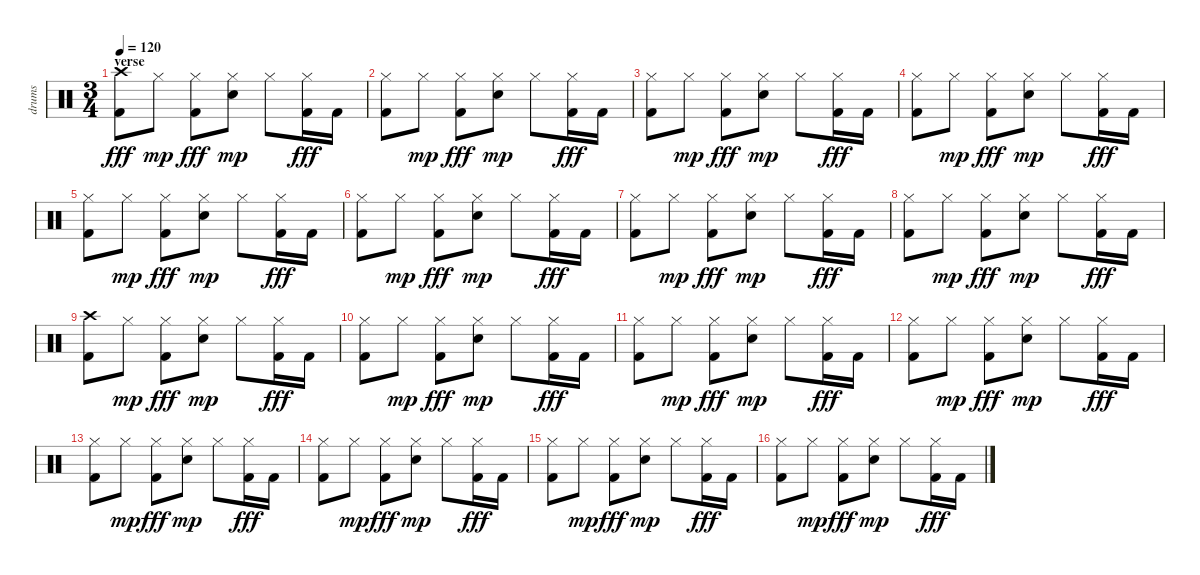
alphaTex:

\track ("drums" "drums") {instrument percussion}
\staff {score}
\articulation defaults
\ts (3 4)
\section ("" "verse")
\tempo 120
\clef neutral
\ks c
("Crash high (hit)" "Kick (hit) 2").8{dy fff} "Hi-Hat (closed)".8{dy mp} ("Hi-Hat (closed)" "Kick (hit) 2").8{dy fff} ("Hi-Hat (closed)" "Snare (hit) 2").8{dy mp} "Hi-Hat (closed)".8 ("Hi-Hat (closed)" "Kick (hit) 2").16{dy fff} "Kick (hit) 2".16 |
("Hi-Hat (closed)" "Kick (hit) 2").8 "Hi-Hat (closed)".8{dy mp} ("Hi-Hat (closed)" "Kick (hit) 2").8{dy fff} ("Hi-Hat (closed)" "Snare (hit) 2").8{dy mp} "Hi-Hat (closed)".8 ("Hi-Hat (closed)" "Kick (hit) 2").16{dy fff} "Kick (hit) 2".16 |
("Hi-Hat (closed)" "Kick (hit) 2").8 "Hi-Hat (closed)".8{dy mp} ("Hi-Hat (closed)" "Kick (hit) 2").8{dy fff} ("Hi-Hat (closed)" "Snare (hit) 2").8{dy mp} "Hi-Hat (closed)".8 ("Hi-Hat (closed)" "Kick (hit) 2").16{dy fff} "Kick (hit) 2".16 |
("Hi-Hat (closed)" "Kick (hit) 2").8 "Hi-Hat (closed)".8{dy mp} ("Hi-Hat (closed)" "Kick (hit) 2").8{dy fff} ("Hi-Hat (closed)" "Snare (hit) 2").8{dy mp} "Hi-Hat (closed)".8 ("Hi-Hat (closed)" "Kick (hit) 2").16{dy fff} "Kick (hit) 2".16 |
("Hi-Hat (closed)" "Kick (hit) 2").8 "Hi-Hat (closed)".8{dy mp} ("Hi-Hat (closed)" "Kick (hit) 2").8{dy fff} ("Hi-Hat (closed)" "Snare (hit) 2").8{dy mp} "Hi-Hat (closed)".8 ("Hi-Hat (closed)" "Kick (hit) 2").16{dy fff} "Kick (hit) 2".16 |
("Hi-Hat (closed)" "Kick (hit) 2").8 "Hi-Hat (closed)".8{dy mp} ("Hi-Hat (closed)" "Kick (hit) 2").8{dy fff} ("Hi-Hat (closed)" "Snare (hit) 2").8{dy mp} "Hi-Hat (closed)".8 ("Hi-Hat (closed)" "Kick (hit) 2").16{dy fff} "Kick (hit) 2".16 |
("Hi-Hat (closed)" "Kick (hit) 2").8 "Hi-Hat (closed)".8{dy mp} ("Hi-Hat (closed)" "Kick (hit) 2").8{dy fff} ("Hi-Hat (closed)" "Snare (hit) 2").8{dy mp} "Hi-Hat (closed)".8 ("Hi-Hat (closed)" "Kick (hit) 2").16{dy fff} "Kick (hit) 2".16 |
("Hi-Hat (closed)" "Kick (hit) 2").8 "Hi-Hat (closed)".8{dy mp} ("Hi-Hat (closed)" "Kick (hit) 2").8{dy fff} ("Hi-Hat (closed)" "Snare (hit) 2").8{dy mp} "Hi-Hat (closed)".8 ("Hi-Hat (closed)" "Kick (hit) 2").16{dy fff} "Kick (hit) 2".16 |
("Crash high (hit)" "Kick (hit) 2").8 "Hi-Hat (closed)".8{dy mp} ("Hi-Hat (closed)" "Kick (hit) 2").8{dy fff} ("Hi-Hat (closed)" "Snare (hit) 2").8{dy mp} "Hi-Hat (closed)".8 ("Hi-Hat (closed)" "Kick (hit) 2").16{dy fff} "Kick (hit) 2".16 |
("Hi-Hat (closed)" "Kick (hit) 2").8 "Hi-Hat (closed)".8{dy mp} ("Hi-Hat (closed)" "Kick (hit) 2").8{dy fff} ("Hi-Hat (closed)" "Snare (hit) 2").8{dy mp} "Hi-Hat (closed)".8 ("Hi-Hat (closed)" "Kick (hit) 2").16{dy fff} "Kick (hit) 2".16 |
("Hi-Hat (closed)" "Kick (hit) 2").8 "Hi-Hat (closed)".8{dy mp} ("Hi-Hat (closed)" "Kick (hit) 2").8{dy fff} ("Hi-Hat (closed)" "Snare (hit) 2").8{dy mp} "Hi-Hat (closed)".8 ("Hi-Hat (closed)" "Kick (hit) 2").16{dy fff} "Kick (hit) 2".16 |
("Hi-Hat (closed)" "Kick (hit) 2").8 "Hi-Hat (closed)".8{dy mp} ("Hi-Hat (closed)" "Kick (hit) 2").8{dy fff} ("Hi-Hat (closed)" "Snare (hit) 2").8{dy mp} "Hi-Hat (closed)".8 ("Hi-Hat (closed)" "Kick (hit) 2").16{dy fff} "Kick (hit) 2".16 |
("Hi-Hat (closed)" "Kick (hit) 2").8 "Hi-Hat (closed)".8{dy mp} ("Hi-Hat (closed)" "Kick (hit) 2").8{dy fff} ("Hi-Hat (closed)" "Snare (hit) 2").8{dy mp} "Hi-Hat (closed)".8 ("Hi-Hat (closed)" "Kick (hit) 2").16{dy fff} "Kick (hit) 2".16 |
("Hi-Hat (closed)" "Kick (hit) 2").8 "Hi-Hat (closed)".8{dy mp} ("Hi-Hat (closed)" "Kick (hit) 2").8{dy fff} ("Hi-Hat (closed)" "Snare (hit) 2").8{dy mp} "Hi-Hat (closed)".8 ("Hi-Hat (closed)" "Kick (hit) 2").16{dy fff} "Kick (hit) 2".16 |
("Hi-Hat (closed)" "Kick (hit) 2").8 "Hi-Hat (closed)".8{dy mp} ("Hi-Hat (closed)" "Kick (hit) 2").8{dy fff} ("Hi-Hat (closed)" "Snare (hit) 2").8{dy mp} "Hi-Hat (closed)".8 ("Hi-Hat (closed)" "Kick (hit) 2").16{dy fff} "Kick (hit) 2".16 |
("Hi-Hat (closed)" "Kick (hit) 2").8 "Hi-Hat (closed)".8{dy mp} ("Hi-Hat (closed)" "Kick (hit) 2").8{dy fff} ("Hi-Hat (closed)" "Snare (hit) 2").8{dy mp} "Hi-Hat (closed)".8 ("Hi-Hat (closed)" "Kick (hit) 2").16{dy fff} "Kick (hit) 2".16
